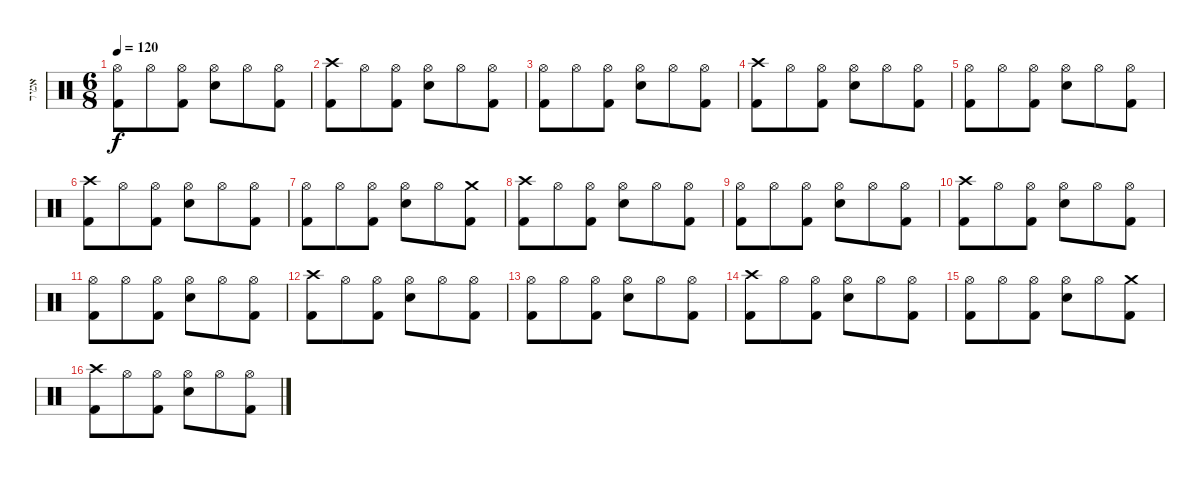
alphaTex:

\track ("אמיר" "אמיר") {instrument percussion}
\staff {score}
\articulation defaults
\ts (6 8)
\tempo 120
\clef neutral
\ks c
("Hi-Hat (open)" "Kick (hit) 2").8{dy f} "Hi-Hat (open)".8 ("Hi-Hat (open)" "Kick (hit) 2").8 ("Hi-Hat (open)" "Snare (hit) 2").8 "Hi-Hat (open)".8 ("Hi-Hat (open)" "Kick (hit) 2").8 |
("Crash high (hit)" "Kick (hit) 2").8 "Hi-Hat (open)".8 ("Hi-Hat (open)" "Kick (hit) 2").8 ("Hi-Hat (open)" "Snare (hit) 2").8 "Hi-Hat (open)".8 ("Hi-Hat (open)" "Kick (hit) 2").8 |
("Hi-Hat (open)" "Kick (hit) 2").8 "Hi-Hat (open)".8 ("Hi-Hat (open)" "Kick (hit) 2").8 ("Hi-Hat (open)" "Snare (hit) 2").8 "Hi-Hat (open)".8 ("Hi-Hat (open)" "Kick (hit) 2").8 |
("Crash high (hit)" "Kick (hit) 2").8 "Hi-Hat (open)".8 ("Hi-Hat (open)" "Kick (hit) 2").8 ("Hi-Hat (open)" "Snare (hit) 2").8 "Hi-Hat (open)".8 ("Hi-Hat (open)" "Kick (hit) 2").8 |
("Hi-Hat (open)" "Kick (hit) 2").8 "Hi-Hat (open)".8 ("Hi-Hat (open)" "Kick (hit) 2").8 ("Hi-Hat (open)" "Snare (hit) 2").8 "Hi-Hat (open)".8 ("Hi-Hat (open)" "Kick (hit) 2").8 |
("Crash high (hit)" "Kick (hit) 2").8 "Hi-Hat (open)".8 ("Hi-Hat (open)" "Kick (hit) 2").8 ("Hi-Hat (open)" "Snare (hit) 2").8 "Hi-Hat (open)".8 ("Hi-Hat (open)" "Kick (hit) 2").8 |
("Hi-Hat (open)" "Kick (hit) 2").8 "Hi-Hat (open)".8 ("Hi-Hat (open)" "Kick (hit) 2").8 ("Hi-Hat (open)" "Snare (hit) 2").8 "Hi-Hat (open)".8 ("Crash medium (hit)" "Kick (hit) 2").8 |
("Crash high (hit)" "Kick (hit) 2").8 "Hi-Hat (open)".8 ("Hi-Hat (open)" "Kick (hit) 2").8 ("Hi-Hat (open)" "Snare (hit) 2").8 "Hi-Hat (open)".8 ("Hi-Hat (open)" "Kick (hit) 2").8 |
("Hi-Hat (open)" "Kick (hit) 2").8 "Hi-Hat (open)".8 ("Hi-Hat (open)" "Kick (hit) 2").8 ("Hi-Hat (open)" "Snare (hit) 2").8 "Hi-Hat (open)".8 ("Hi-Hat (open)" "Kick (hit) 2").8 |
("Crash high (hit)" "Kick (hit) 2").8 "Hi-Hat (open)".8 ("Hi-Hat (open)" "Kick (hit) 2").8 ("Hi-Hat (open)" "Snare (hit) 2").8 "Hi-Hat (open)".8 ("Hi-Hat (open)" "Kick (hit) 2").8 |
("Hi-Hat (open)" "Kick (hit) 2").8 "Hi-Hat (open)".8 ("Hi-Hat (open)" "Kick (hit) 2").8 ("Hi-Hat (open)" "Snare (hit) 2").8 "Hi-Hat (open)".8 ("Hi-Hat (open)" "Kick (hit) 2").8 |
("Crash high (hit)" "Kick (hit) 2").8 "Hi-Hat (open)".8 ("Hi-Hat (open)" "Kick (hit) 2").8 ("Hi-Hat (open)" "Snare (hit) 2").8 "Hi-Hat (open)".8 ("Hi-Hat (open)" "Kick (hit) 2").8 |
("Hi-Hat (open)" "Kick (hit) 2").8 "Hi-Hat (open)".8 ("Hi-Hat (open)" "Kick (hit) 2").8 ("Hi-Hat (open)" "Snare (hit) 2").8 "Hi-Hat (open)".8 ("Hi-Hat (open)" "Kick (hit) 2").8 |
("Crash high (hit)" "Kick (hit) 2").8 "Hi-Hat (open)".8 ("Hi-Hat (open)" "Kick (hit) 2").8 ("Hi-Hat (open)" "Snare (hit) 2").8 "Hi-Hat (open)".8 ("Hi-Hat (open)" "Kick (hit) 2").8 |
("Hi-Hat (open)" "Kick (hit) 2").8 "Hi-Hat (open)".8 ("Hi-Hat (open)" "Kick (hit) 2").8 ("Hi-Hat (open)" "Snare (hit) 2").8 "Hi-Hat (open)".8 ("Crash medium (hit)" "Kick (hit) 2").8 |
("Crash high (hit)" "Kick (hit) 2").8 "Hi-Hat (open)".8 ("Hi-Hat (open)" "Kick (hit) 2").8 ("Hi-Hat (open)" "Snare (hit) 2").8 "Hi-Hat (open)".8 ("Hi-Hat (open)" "Kick (hit) 2").8
